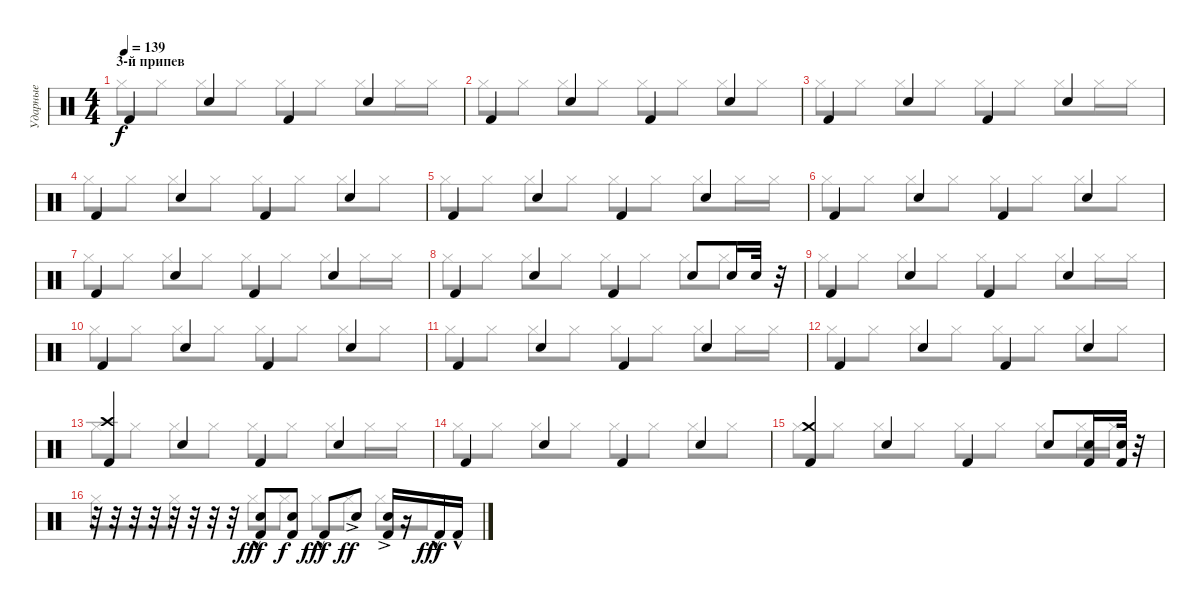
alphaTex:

\track ("Ударные" "Ударные") {instrument percussion}
\staff {score}
\articulation defaults
\voice
\ts (4 4)
\section ("" "3-й припев")
\tempo 139
\clef neutral
\ks c "Kick (hit) 2".4{dy f} "Snare (hit) 2".4 "Kick (hit) 2".4 "Snare (hit) 2".4
|
"Kick (hit) 2".4 "Snare (hit) 2".4 "Kick (hit) 2".4 "Snare (hit) 2".4 |
"Kick (hit) 2".4 "Snare (hit) 2".4 "Kick (hit) 2".4 "Snare (hit) 2".4 |
"Kick (hit) 2".4 "Snare (hit) 2".4 "Kick (hit) 2".4 "Snare (hit) 2".4 |
"Kick (hit) 2".4 "Snare (hit) 2".4 "Kick (hit) 2".4 "Snare (hit) 2".4 |
"Kick (hit) 2".4 "Snare (hit) 2".4 "Kick (hit) 2".4 "Snare (hit) 2".4 |
"Kick (hit) 2".4 "Snare (hit) 2".4 "Kick (hit) 2".4 "Snare (hit) 2".4 |
"Kick (hit) 2".4 "Snare (hit) 2".4 "Kick (hit) 2".4 "Snare (hit) 2".8 "Snare (hit) 2".16 "Snare (hit) 2".32 r.32 |
"Kick (hit) 2".4 "Snare (hit) 2".4 "Kick (hit) 2".4 "Snare (hit) 2".4 |
"Kick (hit) 2".4 "Snare (hit) 2".4 "Kick (hit) 2".4 "Snare (hit) 2".4 |
"Kick (hit) 2".4 "Snare (hit) 2".4 "Kick (hit) 2".4 "Snare (hit) 2".4 |
"Kick (hit) 2".4 "Snare (hit) 2".4 "Kick (hit) 2".4 "Snare (hit) 2".4 |
("Kick (hit) 2" "Crash high (hit)").4 "Snare (hit) 2".4 "Kick (hit) 2".4 "Snare (hit) 2".4 |
"Kick (hit) 2".4 "Snare (hit) 2".4 "Kick (hit) 2".4 "Snare (hit) 2".4 |
("Kick (hit) 2" "Crash medium (hit)").4 "Snare (hit) 2".4 "Kick (hit) 2".4 "Snare (hit) 2".8 ("Kick (hit) 2" "Snare (hit) 2").16 ("Kick (hit) 2" "Snare (hit) 2").32 r.32 |
r.32 r.32 r.32 r.32 r.32 r.32 r.32 r.32 ("Kick (hit) 2" "Snare (hit) 2"{hac}).8{dy fff} ("Kick (hit) 2" "Snare (hit) 2").8{dy f} "Kick (hit) 2"{hac}.8{dy fff} "Snare (hit) 2"{ac}.8{dy ff} ("Kick (hit) 2" "Snare (hit) 2"{ac}).16 r.16 "Kick (hit) 2"{hac}.16{dy fff} "Kick (hit) 2"{hac}.16
\voice
\clef neutral
\ottava regular
\simile none
\ks c "Hi-Hat (closed)".8{dy f} "Hi-Hat (closed)".8 "Hi-Hat (closed)".8 "Hi-Hat (closed)".8 "Hi-Hat (closed)".8 "Hi-Hat (closed)".8 "Hi-Hat (closed)".8 "Hi-Hat (closed)".16 "Hi-Hat (closed)".16
|
"Hi-Hat (closed)".8 "Hi-Hat (closed)".8 "Hi-Hat (closed)".8 "Hi-Hat (closed)".8 "Hi-Hat (closed)".8 "Hi-Hat (closed)".8 "Hi-Hat (closed)".8 "Hi-Hat (closed)".8 |
"Hi-Hat (closed)".8 "Hi-Hat (closed)".8 "Hi-Hat (closed)".8 "Hi-Hat (closed)".8 "Hi-Hat (closed)".8 "Hi-Hat (closed)".8 "Hi-Hat (closed)".8 "Hi-Hat (closed)".16 "Hi-Hat (closed)".16 |
"Hi-Hat (closed)".8 "Hi-Hat (closed)".8 "Hi-Hat (closed)".8 "Hi-Hat (closed)".8 "Hi-Hat (closed)".8 "Hi-Hat (closed)".8 "Hi-Hat (closed)".8 "Hi-Hat (closed)".8 |
"Hi-Hat (closed)".8 "Hi-Hat (closed)".8 "Hi-Hat (closed)".8 "Hi-Hat (closed)".8 "Hi-Hat (closed)".8 "Hi-Hat (closed)".8 "Hi-Hat (closed)".8 "Hi-Hat (closed)".16 "Hi-Hat (closed)".16 |
"Hi-Hat (closed)".8 "Hi-Hat (closed)".8 "Hi-Hat (closed)".8 "Hi-Hat (closed)".8 "Hi-Hat (closed)".8 "Hi-Hat (closed)".8 "Hi-Hat (closed)".8 "Hi-Hat (closed)".8 |
"Hi-Hat (closed)".8 "Hi-Hat (closed)".8 "Hi-Hat (closed)".8 "Hi-Hat (closed)".8 "Hi-Hat (closed)".8 "Hi-Hat (closed)".8 "Hi-Hat (closed)".8 "Hi-Hat (closed)".16 "Hi-Hat (closed)".16 |
"Hi-Hat (closed)".8 "Hi-Hat (closed)".8 "Hi-Hat (closed)".8 "Hi-Hat (closed)".8 "Hi-Hat (closed)".8 "Hi-Hat (closed)".8 "Hi-Hat (closed)".8 "Hi-Hat (closed)".8 |
"Hi-Hat (closed)".8 "Hi-Hat (closed)".8 "Hi-Hat (closed)".8 "Hi-Hat (closed)".8 "Hi-Hat (closed)".8 "Hi-Hat (closed)".8 "Hi-Hat (closed)".8 "Hi-Hat (closed)".16 "Hi-Hat (closed)".16 |
"Hi-Hat (closed)".8 "Hi-Hat (closed)".8 "Hi-Hat (closed)".8 "Hi-Hat (closed)".8 "Hi-Hat (closed)".8 "Hi-Hat (closed)".8 "Hi-Hat (closed)".8 "Hi-Hat (closed)".8 |
"Hi-Hat (closed)".8 "Hi-Hat (closed)".8 "Hi-Hat (closed)".8 "Hi-Hat (closed)".8 "Hi-Hat (closed)".8 "Hi-Hat (closed)".8 "Hi-Hat (closed)".8 "Hi-Hat (closed)".16 "Hi-Hat (closed)".16 |
"Hi-Hat (closed)".8 "Hi-Hat (closed)".8 "Hi-Hat (closed)".8 "Hi-Hat (closed)".8 "Hi-Hat (closed)".8 "Hi-Hat (closed)".8 "Hi-Hat (closed)".8 "Hi-Hat (closed)".8 |
"Hi-Hat (closed)".8 "Hi-Hat (closed)".8 "Hi-Hat (closed)".8 "Hi-Hat (closed)".8 "Hi-Hat (closed)".8 "Hi-Hat (closed)".8 "Hi-Hat (closed)".8 "Hi-Hat (closed)".16 "Hi-Hat (closed)".16 |
"Hi-Hat (closed)".8 "Hi-Hat (closed)".8 "Hi-Hat (closed)".8 "Hi-Hat (closed)".8 "Hi-Hat (closed)".8 "Hi-Hat (closed)".8 "Hi-Hat (closed)".8 "Hi-Hat (closed)".8 |
"Hi-Hat (closed)".8 "Hi-Hat (closed)".8 "Hi-Hat (closed)".8 "Hi-Hat (closed)".8 "Hi-Hat (closed)".8 "Hi-Hat (closed)".8 "Hi-Hat (closed)".8 "Hi-Hat (closed)".16 "Hi-Hat (closed)".16 |
"Hi-Hat (closed)".8 "Hi-Hat (closed)".8 "Hi-Hat (closed)".8 "Hi-Hat (closed)".8 "Hi-Hat (closed)".8 "Hi-Hat (closed)".8 "Hi-Hat (closed)".8 "Hi-Hat (closed)".8
